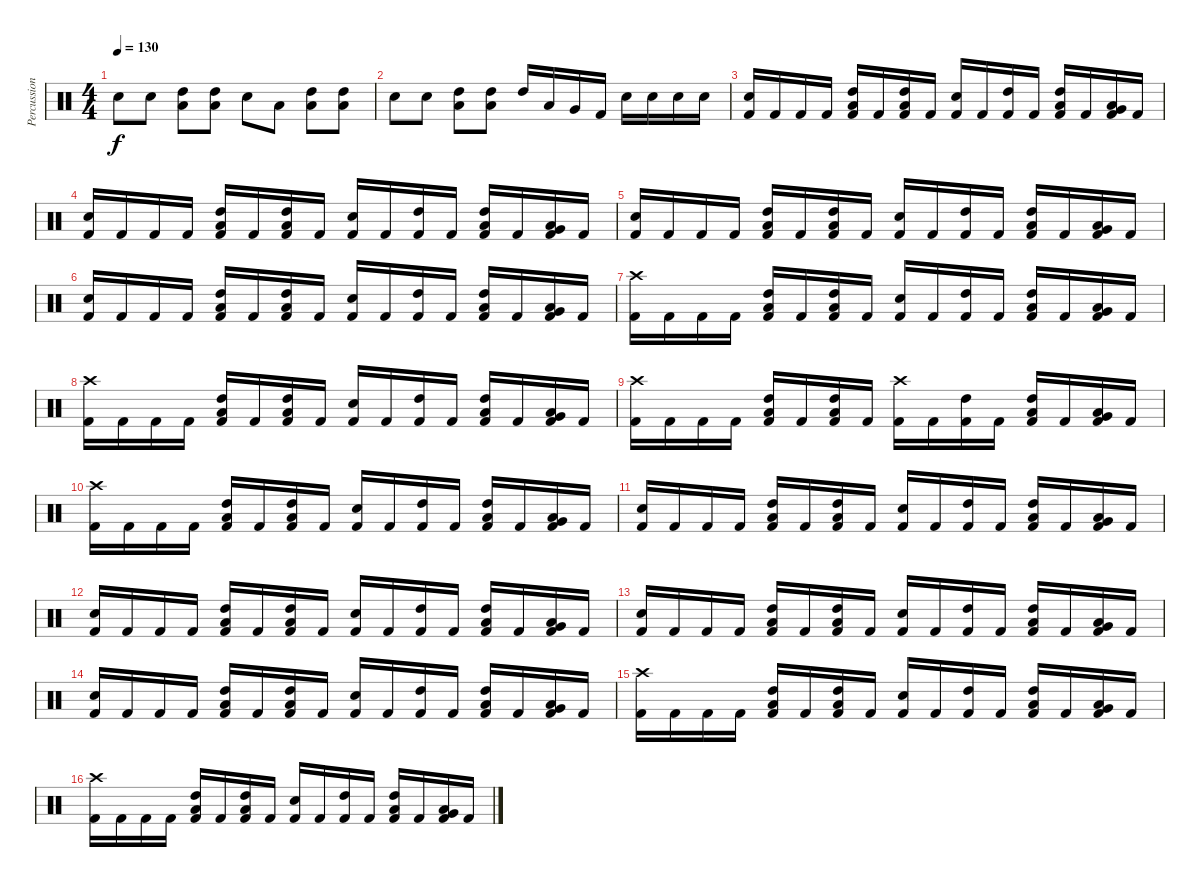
\track ("Percussion" "Percussion") {instrument percussion}
\staff {score}
\articulation defaults
\ts (4 4)
\tempo 130
\clef neutral
\ks c "Snare (hit) 2".8{dy f} "Snare (hit) 2".8
("High Tom (hit)" "Low Tom (hit)").8 ("High Tom (hit)" "Low Tom (hit)").8 "Snare (hit) 2".8 "Low Tom (hit)".8 ("High Tom (hit)" "Low Tom (hit)").8 ("High Tom (hit)" "Low Tom (hit)").8 |
"Snare (hit) 2".8 "Snare (hit) 2".8 ("High Tom (hit)" "Low Tom (hit)").8 ("High Tom (hit)" "Low Tom (hit)").8 "High Tom (hit)".16 "Low Tom (hit)".16 "Very Low Tom (hit)".16 "Kick (hit) 2".16 "Snare (hit) 2".16 "Snare (hit) 2".16 "Snare (hit) 2".16 "Snare (hit) 2".16 |
("Snare (hit) 2" "Kick (hit) 2").16 "Kick (hit) 2".16 "Kick (hit) 2".16 "Kick (hit) 2".16 ("High Tom (hit)" "Low Tom (hit)" "Kick (hit) 2").16 "Kick (hit) 2".16 ("High Tom (hit)" "Low Tom (hit)" "Kick (hit) 2").16 "Kick (hit) 2".16 ("Snare (hit) 2" "Kick (hit) 2").16 "Kick (hit) 2".16 ("High Tom (hit)" "Kick (hit) 2").16 "Kick (hit) 2".16 ("High Tom (hit)" "Low Tom (hit)" "Kick (hit) 2").16 "Kick (hit) 2".16 ("Low Tom (hit)" "Very Low Tom (hit)" "Kick (hit) 2").16 "Kick (hit) 2".16 |
("Snare (hit) 2" "Kick (hit) 2").16 "Kick (hit) 2".16 "Kick (hit) 2".16 "Kick (hit) 2".16 ("High Tom (hit)" "Low Tom (hit)" "Kick (hit) 2").16 "Kick (hit) 2".16 ("High Tom (hit)" "Low Tom (hit)" "Kick (hit) 2").16 "Kick (hit) 2".16 ("Snare (hit) 2" "Kick (hit) 2").16 "Kick (hit) 2".16 ("High Tom (hit)" "Kick (hit) 2").16 "Kick (hit) 2".16 ("High Tom (hit)" "Low Tom (hit)" "Kick (hit) 2").16 "Kick (hit) 2".16 ("Low Tom (hit)" "Very Low Tom (hit)" "Kick (hit) 2").16 "Kick (hit) 2".16 |
("Snare (hit) 2" "Kick (hit) 2").16 "Kick (hit) 2".16 "Kick (hit) 2".16 "Kick (hit) 2".16 ("High Tom (hit)" "Low Tom (hit)" "Kick (hit) 2").16 "Kick (hit) 2".16 ("High Tom (hit)" "Low Tom (hit)" "Kick (hit) 2").16 "Kick (hit) 2".16 ("Snare (hit) 2" "Kick (hit) 2").16 "Kick (hit) 2".16 ("High Tom (hit)" "Kick (hit) 2").16 "Kick (hit) 2".16 ("High Tom (hit)" "Low Tom (hit)" "Kick (hit) 2").16 "Kick (hit) 2".16 ("Low Tom (hit)" "Very Low Tom (hit)" "Kick (hit) 2").16 "Kick (hit) 2".16 |
("Snare (hit) 2" "Kick (hit) 2").16 "Kick (hit) 2".16 "Kick (hit) 2".16 "Kick (hit) 2".16 ("High Tom (hit)" "Low Tom (hit)" "Kick (hit) 2").16 "Kick (hit) 2".16 ("High Tom (hit)" "Low Tom (hit)" "Kick (hit) 2").16 "Kick (hit) 2".16 ("Snare (hit) 2" "Kick (hit) 2").16 "Kick (hit) 2".16 ("High Tom (hit)" "Kick (hit) 2").16 "Kick (hit) 2".16 ("High Tom (hit)" "Low Tom (hit)" "Kick (hit) 2").16 "Kick (hit) 2".16 ("Low Tom (hit)" "Very Low Tom (hit)" "Kick (hit) 2").16 "Kick (hit) 2".16 |
("Crash high (hit)" "Kick (hit) 2").16 "Kick (hit) 2".16 "Kick (hit) 2".16 "Kick (hit) 2".16 ("High Tom (hit)" "Low Tom (hit)" "Kick (hit) 2").16 "Kick (hit) 2".16 ("High Tom (hit)" "Low Tom (hit)" "Kick (hit) 2").16 "Kick (hit) 2".16 ("Snare (hit) 2" "Kick (hit) 2").16 "Kick (hit) 2".16 ("High Tom (hit)" "Kick (hit) 2").16 "Kick (hit) 2".16 ("High Tom (hit)" "Low Tom (hit)" "Kick (hit) 2").16 "Kick (hit) 2".16 ("Low Tom (hit)" "Very Low Tom (hit)" "Kick (hit) 2").16 "Kick (hit) 2".16 |
("Crash high (hit)" "Kick (hit) 2").16 "Kick (hit) 2".16 "Kick (hit) 2".16 "Kick (hit) 2".16 ("High Tom (hit)" "Low Tom (hit)" "Kick (hit) 2").16 "Kick (hit) 2".16 ("High Tom (hit)" "Low Tom (hit)" "Kick (hit) 2").16 "Kick (hit) 2".16 ("Snare (hit) 2" "Kick (hit) 2").16 "Kick (hit) 2".16 ("High Tom (hit)" "Kick (hit) 2").16 "Kick (hit) 2".16 ("High Tom (hit)" "Low Tom (hit)" "Kick (hit) 2").16 "Kick (hit) 2".16 ("Low Tom (hit)" "Very Low Tom (hit)" "Kick (hit) 2").16 "Kick (hit) 2".16 |
("Crash high (hit)" "Kick (hit) 2").16 "Kick (hit) 2".16 "Kick (hit) 2".16 "Kick (hit) 2".16 ("High Tom (hit)" "Low Tom (hit)" "Kick (hit) 2").16 "Kick (hit) 2".16 ("High Tom (hit)" "Low Tom (hit)" "Kick (hit) 2").16 "Kick (hit) 2".16 ("Crash high (hit)" "Kick (hit) 2").16 "Kick (hit) 2".16 ("High Tom (hit)" "Kick (hit) 2").16 "Kick (hit) 2".16 ("High Tom (hit)" "Low Tom (hit)" "Kick (hit) 2").16 "Kick (hit) 2".16 ("Low Tom (hit)" "Very Low Tom (hit)" "Kick (hit) 2").16 "Kick (hit) 2".16 |
("Crash high (hit)" "Kick (hit) 2").16 "Kick (hit) 2".16 "Kick (hit) 2".16 "Kick (hit) 2".16 ("High Tom (hit)" "Low Tom (hit)" "Kick (hit) 2").16 "Kick (hit) 2".16 ("High Tom (hit)" "Low Tom (hit)" "Kick (hit) 2").16 "Kick (hit) 2".16 ("Snare (hit) 2" "Kick (hit) 2").16 "Kick (hit) 2".16 ("High Tom (hit)" "Kick (hit) 2").16 "Kick (hit) 2".16 ("High Tom (hit)" "Low Tom (hit)" "Kick (hit) 2").16 "Kick (hit) 2".16 ("Low Tom (hit)" "Very Low Tom (hit)" "Kick (hit) 2").16 "Kick (hit) 2".16 |
("Snare (hit) 2" "Kick (hit) 2").16 "Kick (hit) 2".16 "Kick (hit) 2".16 "Kick (hit) 2".16 ("High Tom (hit)" "Low Tom (hit)" "Kick (hit) 2").16 "Kick (hit) 2".16 ("High Tom (hit)" "Low Tom (hit)" "Kick (hit) 2").16 "Kick (hit) 2".16 ("Snare (hit) 2" "Kick (hit) 2").16 "Kick (hit) 2".16 ("High Tom (hit)" "Kick (hit) 2").16 "Kick (hit) 2".16 ("High Tom (hit)" "Low Tom (hit)" "Kick (hit) 2").16 "Kick (hit) 2".16 ("Low Tom (hit)" "Very Low Tom (hit)" "Kick (hit) 2").16 "Kick (hit) 2".16 |
("Snare (hit) 2" "Kick (hit) 2").16 "Kick (hit) 2".16 "Kick (hit) 2".16 "Kick (hit) 2".16 ("High Tom (hit)" "Low Tom (hit)" "Kick (hit) 2").16 "Kick (hit) 2".16 ("High Tom (hit)" "Low Tom (hit)" "Kick (hit) 2").16 "Kick (hit) 2".16 ("Snare (hit) 2" "Kick (hit) 2").16 "Kick (hit) 2".16 ("High Tom (hit)" "Kick (hit) 2").16 "Kick (hit) 2".16 ("High Tom (hit)" "Low Tom (hit)" "Kick (hit) 2").16 "Kick (hit) 2".16 ("Low Tom (hit)" "Very Low Tom (hit)" "Kick (hit) 2").16 "Kick (hit) 2".16 |
("Snare (hit) 2" "Kick (hit) 2").16 "Kick (hit) 2".16 "Kick (hit) 2".16 "Kick (hit) 2".16 ("High Tom (hit)" "Low Tom (hit)" "Kick (hit) 2").16 "Kick (hit) 2".16 ("High Tom (hit)" "Low Tom (hit)" "Kick (hit) 2").16 "Kick (hit) 2".16 ("Snare (hit) 2" "Kick (hit) 2").16 "Kick (hit) 2".16 ("High Tom (hit)" "Kick (hit) 2").16 "Kick (hit) 2".16 ("High Tom (hit)" "Low Tom (hit)" "Kick (hit) 2").16 "Kick (hit) 2".16 ("Low Tom (hit)" "Very Low Tom (hit)" "Kick (hit) 2").16 "Kick (hit) 2".16 |
("Snare (hit) 2" "Kick (hit) 2").16 "Kick (hit) 2".16 "Kick (hit) 2".16 "Kick (hit) 2".16 ("High Tom (hit)" "Low Tom (hit)" "Kick (hit) 2").16 "Kick (hit) 2".16 ("High Tom (hit)" "Low Tom (hit)" "Kick (hit) 2").16 "Kick (hit) 2".16 ("Snare (hit) 2" "Kick (hit) 2").16 "Kick (hit) 2".16 ("High Tom (hit)" "Kick (hit) 2").16 "Kick (hit) 2".16 ("High Tom (hit)" "Low Tom (hit)" "Kick (hit) 2").16 "Kick (hit) 2".16 ("Low Tom (hit)" "Very Low Tom (hit)" "Kick (hit) 2").16 "Kick (hit) 2".16 |
("Crash high (hit)" "Kick (hit) 2").16 "Kick (hit) 2".16 "Kick (hit) 2".16 "Kick (hit) 2".16 ("High Tom (hit)" "Low Tom (hit)" "Kick (hit) 2").16 "Kick (hit) 2".16 ("High Tom (hit)" "Low Tom (hit)" "Kick (hit) 2").16 "Kick (hit) 2".16 ("Snare (hit) 2" "Kick (hit) 2").16 "Kick (hit) 2".16 ("High Tom (hit)" "Kick (hit) 2").16 "Kick (hit) 2".16 ("High Tom (hit)" "Low Tom (hit)" "Kick (hit) 2").16 "Kick (hit) 2".16 ("Low Tom (hit)" "Very Low Tom (hit)" "Kick (hit) 2").16 "Kick (hit) 2".16 |
("Crash high (hit)" "Kick (hit) 2").16 "Kick (hit) 2".16 "Kick (hit) 2".16 "Kick (hit) 2".16 ("High Tom (hit)" "Low Tom (hit)" "Kick (hit) 2").16 "Kick (hit) 2".16 ("High Tom (hit)" "Low Tom (hit)" "Kick (hit) 2").16 "Kick (hit) 2".16 ("Snare (hit) 2" "Kick (hit) 2").16 "Kick (hit) 2".16 ("High Tom (hit)" "Kick (hit) 2").16 "Kick (hit) 2".16 ("High Tom (hit)" "Low Tom (hit)" "Kick (hit) 2").16 "Kick (hit) 2".16 ("Low Tom (hit)" "Very Low Tom (hit)" "Kick (hit) 2").16 "Kick (hit) 2".16
